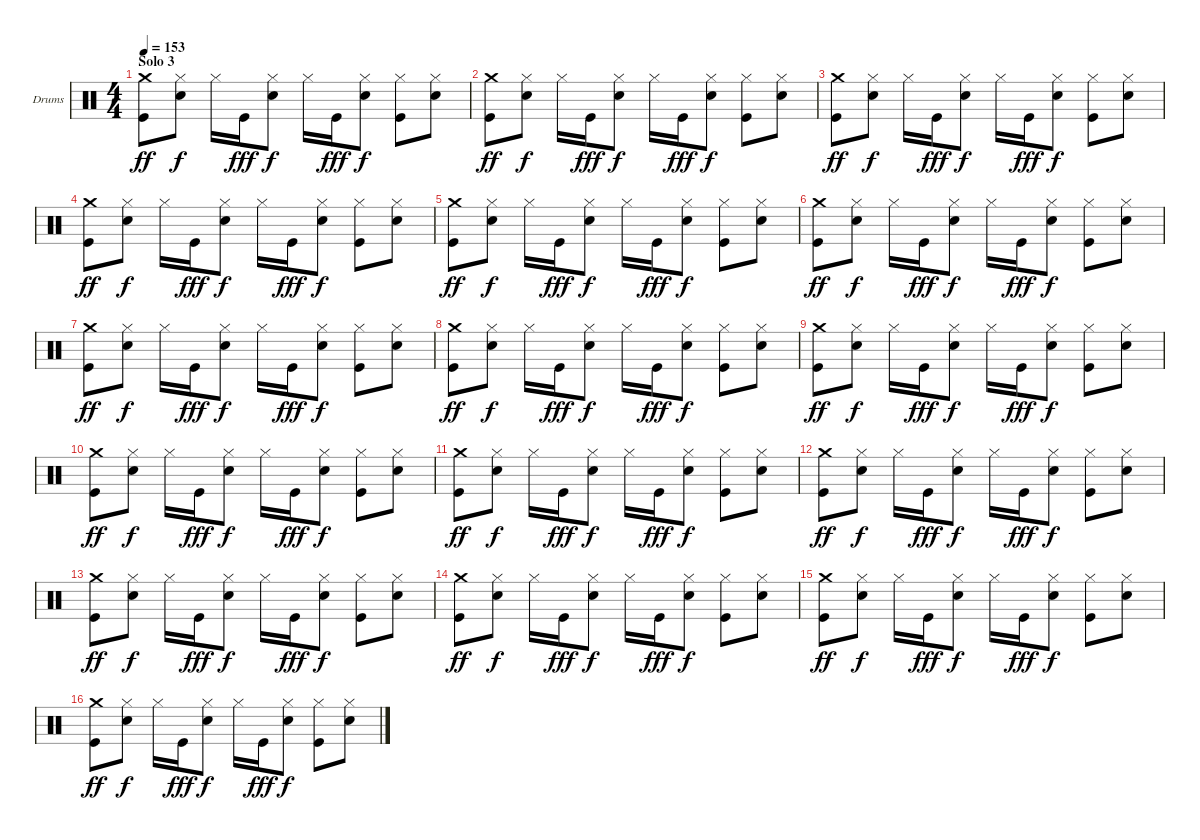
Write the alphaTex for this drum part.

\bracketExtendMode groupsimilarinstruments
\firstSystemTrackNameOrientation horizontal
\otherSystemsTrackNameOrientation horizontal
\track ("Drumkit" "Drums") {instrument percussion}
\staff {score}
\articulation defaults
\ts (4 4)
\section ("" "Solo 3")
\tempo 153
\clef neutral
\ks c
("Crash medium (hit)" "Kick (hit)").8{dy ff} ("Hi-Hat (closed)" "Snare (hit) 2").8{dy f} "Hi-Hat (closed)".16 "Kick (hit)".16{dy fff} ("Hi-Hat (closed)" "Snare (hit) 2").8{dy f} "Hi-Hat (closed)".16 "Kick (hit)".16{dy fff} ("Hi-Hat (closed)" "Snare (hit) 2").8{dy f} ("Hi-Hat (closed)" "Kick (hit)").8 ("Hi-Hat (closed)" "Snare (hit) 2").8 |
("Crash medium (hit)" "Kick (hit)").8{dy ff} ("Hi-Hat (closed)" "Snare (hit) 2").8{dy f} "Hi-Hat (closed)".16 "Kick (hit)".16{dy fff} ("Hi-Hat (closed)" "Snare (hit) 2").8{dy f} "Hi-Hat (closed)".16 "Kick (hit)".16{dy fff} ("Hi-Hat (closed)" "Snare (hit) 2").8{dy f} ("Hi-Hat (closed)" "Kick (hit)").8 ("Hi-Hat (closed)" "Snare (hit) 2").8 |
("Crash medium (hit)" "Kick (hit)").8{dy ff} ("Hi-Hat (closed)" "Snare (hit) 2").8{dy f} "Hi-Hat (closed)".16 "Kick (hit)".16{dy fff} ("Hi-Hat (closed)" "Snare (hit) 2").8{dy f} "Hi-Hat (closed)".16 "Kick (hit)".16{dy fff} ("Hi-Hat (closed)" "Snare (hit) 2").8{dy f} ("Hi-Hat (closed)" "Kick (hit)").8 ("Hi-Hat (closed)" "Snare (hit) 2").8 |
("Crash medium (hit)" "Kick (hit)").8{dy ff} ("Hi-Hat (closed)" "Snare (hit) 2").8{dy f} "Hi-Hat (closed)".16 "Kick (hit)".16{dy fff} ("Hi-Hat (closed)" "Snare (hit) 2").8{dy f} "Hi-Hat (closed)".16 "Kick (hit)".16{dy fff} ("Hi-Hat (closed)" "Snare (hit) 2").8{dy f} ("Hi-Hat (closed)" "Kick (hit)").8 ("Hi-Hat (closed)" "Snare (hit) 2").8 |
("Crash medium (hit)" "Kick (hit)").8{dy ff} ("Hi-Hat (closed)" "Snare (hit) 2").8{dy f} "Hi-Hat (closed)".16 "Kick (hit)".16{dy fff} ("Hi-Hat (closed)" "Snare (hit) 2").8{dy f} "Hi-Hat (closed)".16 "Kick (hit)".16{dy fff} ("Hi-Hat (closed)" "Snare (hit) 2").8{dy f} ("Hi-Hat (closed)" "Kick (hit)").8 ("Hi-Hat (closed)" "Snare (hit) 2").8 |
("Crash medium (hit)" "Kick (hit)").8{dy ff} ("Hi-Hat (closed)" "Snare (hit) 2").8{dy f} "Hi-Hat (closed)".16 "Kick (hit)".16{dy fff} ("Hi-Hat (closed)" "Snare (hit) 2").8{dy f} "Hi-Hat (closed)".16 "Kick (hit)".16{dy fff} ("Hi-Hat (closed)" "Snare (hit) 2").8{dy f} ("Hi-Hat (closed)" "Kick (hit)").8 ("Hi-Hat (closed)" "Snare (hit) 2").8 |
("Crash medium (hit)" "Kick (hit)").8{dy ff} ("Hi-Hat (closed)" "Snare (hit) 2").8{dy f} "Hi-Hat (closed)".16 "Kick (hit)".16{dy fff} ("Hi-Hat (closed)" "Snare (hit) 2").8{dy f} "Hi-Hat (closed)".16 "Kick (hit)".16{dy fff} ("Hi-Hat (closed)" "Snare (hit) 2").8{dy f} ("Hi-Hat (closed)" "Kick (hit)").8 ("Hi-Hat (closed)" "Snare (hit) 2").8 |
("Crash medium (hit)" "Kick (hit)").8{dy ff} ("Hi-Hat (closed)" "Snare (hit) 2").8{dy f} "Hi-Hat (closed)".16 "Kick (hit)".16{dy fff} ("Hi-Hat (closed)" "Snare (hit) 2").8{dy f} "Hi-Hat (closed)".16 "Kick (hit)".16{dy fff} ("Hi-Hat (closed)" "Snare (hit) 2").8{dy f} ("Hi-Hat (closed)" "Kick (hit)").8 ("Hi-Hat (closed)" "Snare (hit) 2").8 |
("Crash medium (hit)" "Kick (hit)").8{dy ff} ("Hi-Hat (closed)" "Snare (hit) 2").8{dy f} "Hi-Hat (closed)".16 "Kick (hit)".16{dy fff} ("Hi-Hat (closed)" "Snare (hit) 2").8{dy f} "Hi-Hat (closed)".16 "Kick (hit)".16{dy fff} ("Hi-Hat (closed)" "Snare (hit) 2").8{dy f} ("Hi-Hat (closed)" "Kick (hit)").8 ("Hi-Hat (closed)" "Snare (hit) 2").8 |
("Crash medium (hit)" "Kick (hit)").8{dy ff} ("Hi-Hat (closed)" "Snare (hit) 2").8{dy f} "Hi-Hat (closed)".16 "Kick (hit)".16{dy fff} ("Hi-Hat (closed)" "Snare (hit) 2").8{dy f} "Hi-Hat (closed)".16 "Kick (hit)".16{dy fff} ("Hi-Hat (closed)" "Snare (hit) 2").8{dy f} ("Hi-Hat (closed)" "Kick (hit)").8 ("Hi-Hat (closed)" "Snare (hit) 2").8 |
("Crash medium (hit)" "Kick (hit)").8{dy ff} ("Hi-Hat (closed)" "Snare (hit) 2").8{dy f} "Hi-Hat (closed)".16 "Kick (hit)".16{dy fff} ("Hi-Hat (closed)" "Snare (hit) 2").8{dy f} "Hi-Hat (closed)".16 "Kick (hit)".16{dy fff} ("Hi-Hat (closed)" "Snare (hit) 2").8{dy f} ("Hi-Hat (closed)" "Kick (hit)").8 ("Hi-Hat (closed)" "Snare (hit) 2").8 |
("Crash medium (hit)" "Kick (hit)").8{dy ff} ("Hi-Hat (closed)" "Snare (hit) 2").8{dy f} "Hi-Hat (closed)".16 "Kick (hit)".16{dy fff} ("Hi-Hat (closed)" "Snare (hit) 2").8{dy f} "Hi-Hat (closed)".16 "Kick (hit)".16{dy fff} ("Hi-Hat (closed)" "Snare (hit) 2").8{dy f} ("Hi-Hat (closed)" "Kick (hit)").8 ("Hi-Hat (closed)" "Snare (hit) 2").8 |
("Crash medium (hit)" "Kick (hit)").8{dy ff} ("Hi-Hat (closed)" "Snare (hit) 2").8{dy f} "Hi-Hat (closed)".16 "Kick (hit)".16{dy fff} ("Hi-Hat (closed)" "Snare (hit) 2").8{dy f} "Hi-Hat (closed)".16 "Kick (hit)".16{dy fff} ("Hi-Hat (closed)" "Snare (hit) 2").8{dy f} ("Hi-Hat (closed)" "Kick (hit)").8 ("Hi-Hat (closed)" "Snare (hit) 2").8 |
("Crash medium (hit)" "Kick (hit)").8{dy ff} ("Hi-Hat (closed)" "Snare (hit) 2").8{dy f} "Hi-Hat (closed)".16 "Kick (hit)".16{dy fff} ("Hi-Hat (closed)" "Snare (hit) 2").8{dy f} "Hi-Hat (closed)".16 "Kick (hit)".16{dy fff} ("Hi-Hat (closed)" "Snare (hit) 2").8{dy f} ("Hi-Hat (closed)" "Kick (hit)").8 ("Hi-Hat (closed)" "Snare (hit) 2").8 |
("Crash medium (hit)" "Kick (hit)").8{dy ff} ("Hi-Hat (closed)" "Snare (hit) 2").8{dy f} "Hi-Hat (closed)".16 "Kick (hit)".16{dy fff} ("Hi-Hat (closed)" "Snare (hit) 2").8{dy f} "Hi-Hat (closed)".16 "Kick (hit)".16{dy fff} ("Hi-Hat (closed)" "Snare (hit) 2").8{dy f} ("Hi-Hat (closed)" "Kick (hit)").8 ("Hi-Hat (closed)" "Snare (hit) 2").8 |
("Crash medium (hit)" "Kick (hit)").8{dy ff} ("Hi-Hat (closed)" "Snare (hit) 2").8{dy f} "Hi-Hat (closed)".16 "Kick (hit)".16{dy fff} ("Hi-Hat (closed)" "Snare (hit) 2").8{dy f} "Hi-Hat (closed)".16 "Kick (hit)".16{dy fff} ("Hi-Hat (closed)" "Snare (hit) 2").8{dy f} ("Hi-Hat (closed)" "Kick (hit)").8 ("Hi-Hat (closed)" "Snare (hit) 2").8
